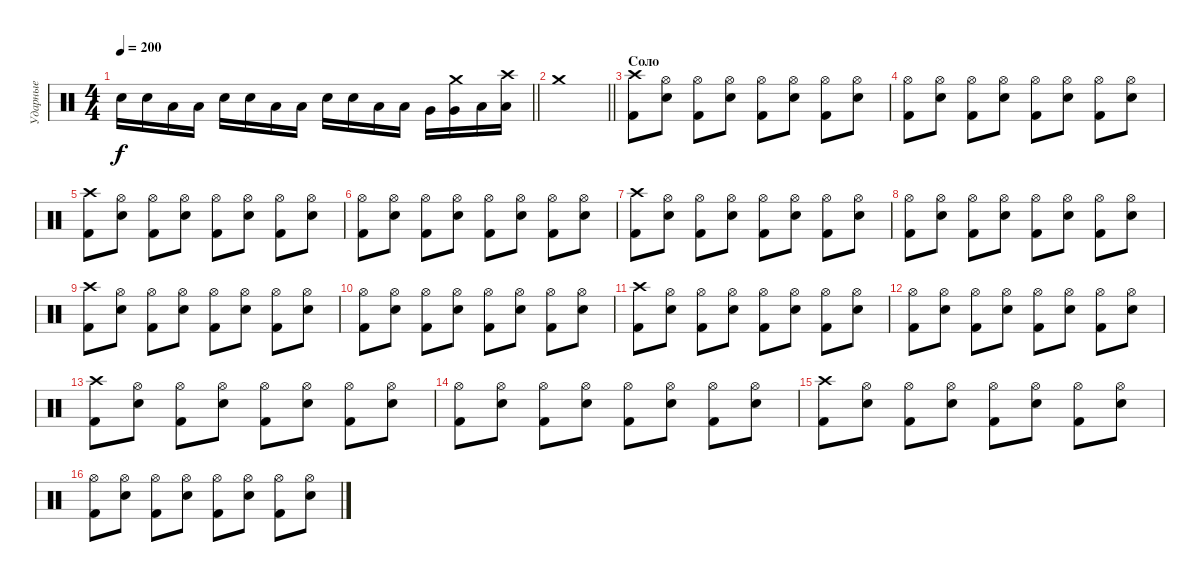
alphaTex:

\track ("Ударные" "Ударные") {instrument percussion}
\staff {score}
\articulation defaults
\ts (4 4)
\tempo 200
\clef neutral
\barLineRight lightlight
\ks c "Snare (hit) 2".16{dy f} "Snare (hit) 2".16 "Low Tom (hit)".16 "Low Tom (hit)".16 "Snare (hit) 2".16 "Snare (hit) 2".16 "Low Tom (hit)".16 "Low Tom (hit)".16 "Snare (hit) 2".16 "Snare (hit) 2".16 "Low Tom (hit)".16 "Low Tom (hit)".16 "Very Low Tom (hit)".16
("Crash medium (hit)" "Very Low Tom (hit)").16 "Low Floor Tom (hit)".16 ("Crash high (hit)" "Low Floor Tom (hit)").16 |
\section ("" "")
\barLineRight lightlight "Crash medium (hit)".1
|
\section ("" "Соло")
("Crash high (hit)" "Kick (hit) 2").8 ("Hi-Hat (open)" "Snare (hit) 2").8 ("Hi-Hat (open)" "Kick (hit) 2").8 ("Hi-Hat (open)" "Snare (hit) 2").8 ("Hi-Hat (open)" "Kick (hit) 2").8 ("Hi-Hat (open)" "Snare (hit) 2").8 ("Hi-Hat (open)" "Kick (hit) 2").8 ("Hi-Hat (open)" "Snare (hit) 2").8 |
("Hi-Hat (open)" "Kick (hit) 2").8 ("Hi-Hat (open)" "Snare (hit) 2").8 ("Hi-Hat (open)" "Kick (hit) 2").8 ("Hi-Hat (open)" "Snare (hit) 2").8 ("Hi-Hat (open)" "Kick (hit) 2").8 ("Hi-Hat (open)" "Snare (hit) 2").8 ("Hi-Hat (open)" "Kick (hit) 2").8 ("Hi-Hat (open)" "Snare (hit) 2").8 |
("Crash high (hit)" "Kick (hit) 2").8 ("Hi-Hat (open)" "Snare (hit) 2").8 ("Hi-Hat (open)" "Kick (hit) 2").8 ("Hi-Hat (open)" "Snare (hit) 2").8 ("Hi-Hat (open)" "Kick (hit) 2").8 ("Hi-Hat (open)" "Snare (hit) 2").8 ("Hi-Hat (open)" "Kick (hit) 2").8 ("Hi-Hat (open)" "Snare (hit) 2").8 |
("Hi-Hat (open)" "Kick (hit) 2").8 ("Hi-Hat (open)" "Snare (hit) 2").8 ("Hi-Hat (open)" "Kick (hit) 2").8 ("Hi-Hat (open)" "Snare (hit) 2").8 ("Hi-Hat (open)" "Kick (hit) 2").8 ("Hi-Hat (open)" "Snare (hit) 2").8 ("Hi-Hat (open)" "Kick (hit) 2").8 ("Hi-Hat (open)" "Snare (hit) 2").8 |
("Crash high (hit)" "Kick (hit) 2").8 ("Hi-Hat (open)" "Snare (hit) 2").8 ("Hi-Hat (open)" "Kick (hit) 2").8 ("Hi-Hat (open)" "Snare (hit) 2").8 ("Hi-Hat (open)" "Kick (hit) 2").8 ("Hi-Hat (open)" "Snare (hit) 2").8 ("Hi-Hat (open)" "Kick (hit) 2").8 ("Hi-Hat (open)" "Snare (hit) 2").8 |
("Hi-Hat (open)" "Kick (hit) 2").8 ("Hi-Hat (open)" "Snare (hit) 2").8 ("Hi-Hat (open)" "Kick (hit) 2").8 ("Hi-Hat (open)" "Snare (hit) 2").8 ("Hi-Hat (open)" "Kick (hit) 2").8 ("Hi-Hat (open)" "Snare (hit) 2").8 ("Hi-Hat (open)" "Kick (hit) 2").8 ("Hi-Hat (open)" "Snare (hit) 2").8 |
("Crash high (hit)" "Kick (hit) 2").8 ("Hi-Hat (open)" "Snare (hit) 2").8 ("Hi-Hat (open)" "Kick (hit) 2").8 ("Hi-Hat (open)" "Snare (hit) 2").8 ("Hi-Hat (open)" "Kick (hit) 2").8 ("Hi-Hat (open)" "Snare (hit) 2").8 ("Hi-Hat (open)" "Kick (hit) 2").8 ("Hi-Hat (open)" "Snare (hit) 2").8 |
("Hi-Hat (open)" "Kick (hit) 2").8 ("Hi-Hat (open)" "Snare (hit) 2").8 ("Hi-Hat (open)" "Kick (hit) 2").8 ("Hi-Hat (open)" "Snare (hit) 2").8 ("Hi-Hat (open)" "Kick (hit) 2").8 ("Hi-Hat (open)" "Snare (hit) 2").8 ("Hi-Hat (open)" "Kick (hit) 2").8 ("Hi-Hat (open)" "Snare (hit) 2").8 |
("Crash high (hit)" "Kick (hit) 2").8 ("Hi-Hat (open)" "Snare (hit) 2").8 ("Hi-Hat (open)" "Kick (hit) 2").8 ("Hi-Hat (open)" "Snare (hit) 2").8 ("Hi-Hat (open)" "Kick (hit) 2").8 ("Hi-Hat (open)" "Snare (hit) 2").8 ("Hi-Hat (open)" "Kick (hit) 2").8 ("Hi-Hat (open)" "Snare (hit) 2").8 |
("Hi-Hat (open)" "Kick (hit) 2").8 ("Hi-Hat (open)" "Snare (hit) 2").8 ("Hi-Hat (open)" "Kick (hit) 2").8 ("Hi-Hat (open)" "Snare (hit) 2").8 ("Hi-Hat (open)" "Kick (hit) 2").8 ("Hi-Hat (open)" "Snare (hit) 2").8 ("Hi-Hat (open)" "Kick (hit) 2").8 ("Hi-Hat (open)" "Snare (hit) 2").8 |
("Crash high (hit)" "Kick (hit) 2").8 ("Hi-Hat (open)" "Snare (hit) 2").8 ("Hi-Hat (open)" "Kick (hit) 2").8 ("Hi-Hat (open)" "Snare (hit) 2").8 ("Hi-Hat (open)" "Kick (hit) 2").8 ("Hi-Hat (open)" "Snare (hit) 2").8 ("Hi-Hat (open)" "Kick (hit) 2").8 ("Hi-Hat (open)" "Snare (hit) 2").8 |
("Hi-Hat (open)" "Kick (hit) 2").8 ("Hi-Hat (open)" "Snare (hit) 2").8 ("Hi-Hat (open)" "Kick (hit) 2").8 ("Hi-Hat (open)" "Snare (hit) 2").8 ("Hi-Hat (open)" "Kick (hit) 2").8 ("Hi-Hat (open)" "Snare (hit) 2").8 ("Hi-Hat (open)" "Kick (hit) 2").8 ("Hi-Hat (open)" "Snare (hit) 2").8 |
("Crash high (hit)" "Kick (hit) 2").8 ("Hi-Hat (open)" "Snare (hit) 2").8 ("Hi-Hat (open)" "Kick (hit) 2").8 ("Hi-Hat (open)" "Snare (hit) 2").8 ("Hi-Hat (open)" "Kick (hit) 2").8 ("Hi-Hat (open)" "Snare (hit) 2").8 ("Hi-Hat (open)" "Kick (hit) 2").8 ("Hi-Hat (open)" "Snare (hit) 2").8 |
("Hi-Hat (open)" "Kick (hit) 2").8 ("Hi-Hat (open)" "Snare (hit) 2").8 ("Hi-Hat (open)" "Kick (hit) 2").8 ("Hi-Hat (open)" "Snare (hit) 2").8 ("Hi-Hat (open)" "Kick (hit) 2").8 ("Hi-Hat (open)" "Snare (hit) 2").8 ("Hi-Hat (open)" "Kick (hit) 2").8 ("Hi-Hat (open)" "Snare (hit) 2").8
